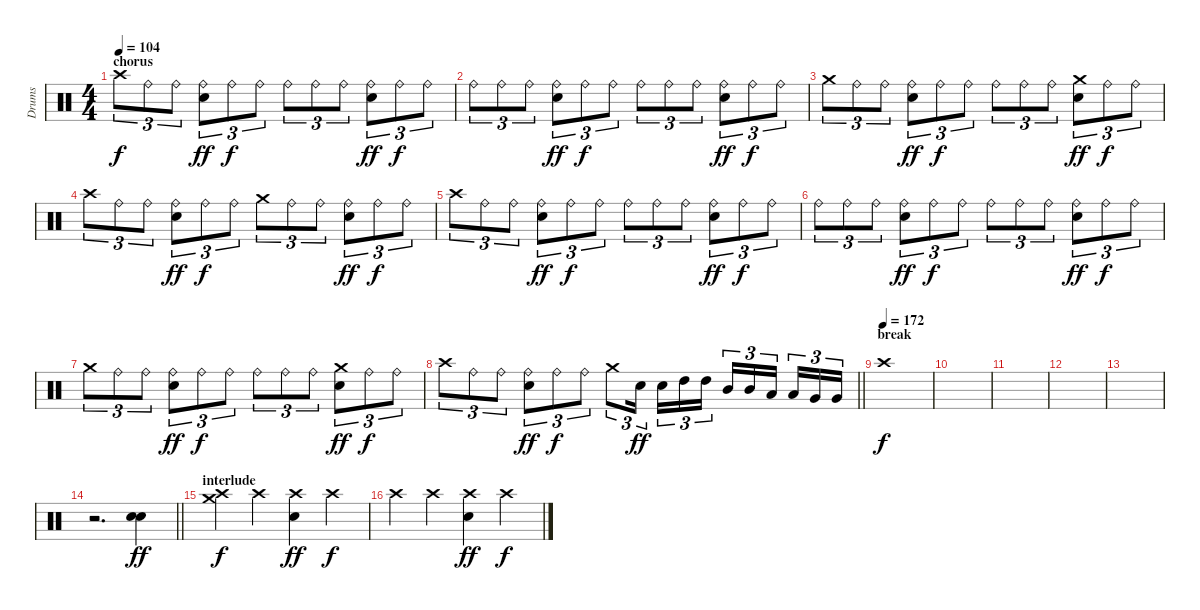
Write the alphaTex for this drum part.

\track ("Drums" "Drums") {instrument percussion}
\staff {score}
\articulation defaults
\ts (4 4)
\section ("" "chorus")
\tempo 104
\clef neutral
\ks c "Crash high (hit)".8{tu (3 2) dy f} "Ride (bell)".8{tu (3 2)} "Ride (bell)".8{tu (3 2)}
("Ride (bell)" "Snare (hit) 2").8{tu (3 2) dy ff} "Ride (bell)".8{tu (3 2) dy f} "Ride (bell)".8{tu (3 2)} "Ride (bell)".8{tu (3 2)} "Ride (bell)".8{tu (3 2)} "Ride (bell)".8{tu (3 2)} ("Ride (bell)" "Snare (hit) 2").8{tu (3 2) dy ff} "Ride (bell)".8{tu (3 2) dy f} "Ride (bell)".8{tu (3 2)} |
"Ride (bell)".8{tu (3 2)} "Ride (bell)".8{tu (3 2)} "Ride (bell)".8{tu (3 2)} ("Ride (bell)" "Snare (hit) 2").8{tu (3 2) dy ff} "Ride (bell)".8{tu (3 2) dy f} "Ride (bell)".8{tu (3 2)} "Ride (bell)".8{tu (3 2)} "Ride (bell)".8{tu (3 2)} "Ride (bell)".8{tu (3 2)} ("Ride (bell)" "Snare (hit) 2").8{tu (3 2) dy ff} "Ride (bell)".8{tu (3 2) dy f} "Ride (bell)".8{tu (3 2)} |
"Crash medium (hit)".8{tu (3 2)} "Ride (bell)".8{tu (3 2)} "Ride (bell)".8{tu (3 2)} ("Ride (bell)" "Snare (hit) 2").8{tu (3 2) dy ff} "Ride (bell)".8{tu (3 2) dy f} "Ride (bell)".8{tu (3 2)} "Ride (bell)".8{tu (3 2)} "Ride (bell)".8{tu (3 2)} "Ride (bell)".8{tu (3 2)} ("Crash medium (hit)" "Snare (hit) 2").8{tu (3 2) dy ff} "Ride (bell)".8{tu (3 2) dy f} "Ride (bell)".8{tu (3 2)} |
"Crash high (hit)".8{tu (3 2)} "Ride (bell)".8{tu (3 2)} "Ride (bell)".8{tu (3 2)} ("Ride (bell)" "Snare (hit) 2").8{tu (3 2) dy ff} "Ride (bell)".8{tu (3 2) dy f} "Ride (bell)".8{tu (3 2)} "Crash medium (hit)".8{tu (3 2)} "Ride (bell)".8{tu (3 2)} "Ride (bell)".8{tu (3 2)} ("Ride (bell)" "Snare (hit) 2").8{tu (3 2) dy ff} "Ride (bell)".8{tu (3 2) dy f} "Ride (bell)".8{tu (3 2)} |
"Crash high (hit)".8{tu (3 2)} "Ride (bell)".8{tu (3 2)} "Ride (bell)".8{tu (3 2)} ("Ride (bell)" "Snare (hit) 2").8{tu (3 2) dy ff} "Ride (bell)".8{tu (3 2) dy f} "Ride (bell)".8{tu (3 2)} "Ride (bell)".8{tu (3 2)} "Ride (bell)".8{tu (3 2)} "Ride (bell)".8{tu (3 2)} ("Ride (bell)" "Snare (hit) 2").8{tu (3 2) dy ff} "Ride (bell)".8{tu (3 2) dy f} "Ride (bell)".8{tu (3 2)} |
"Ride (bell)".8{tu (3 2)} "Ride (bell)".8{tu (3 2)} "Ride (bell)".8{tu (3 2)} ("Ride (bell)" "Snare (hit) 2").8{tu (3 2) dy ff} "Ride (bell)".8{tu (3 2) dy f} "Ride (bell)".8{tu (3 2)} "Ride (bell)".8{tu (3 2)} "Ride (bell)".8{tu (3 2)} "Ride (bell)".8{tu (3 2)} ("Ride (bell)" "Snare (hit) 2").8{tu (3 2) dy ff} "Ride (bell)".8{tu (3 2) dy f} "Ride (bell)".8{tu (3 2)} |
"Crash medium (hit)".8{tu (3 2)} "Ride (bell)".8{tu (3 2)} "Ride (bell)".8{tu (3 2)} ("Ride (bell)" "Snare (hit) 2").8{tu (3 2) dy ff} "Ride (bell)".8{tu (3 2) dy f} "Ride (bell)".8{tu (3 2)} "Ride (bell)".8{tu (3 2)} "Ride (bell)".8{tu (3 2)} "Ride (bell)".8{tu (3 2)} ("Crash medium (hit)" "Snare (hit) 2").8{tu (3 2) dy ff} "Ride (bell)".8{tu (3 2) dy f} "Ride (bell)".8{tu (3 2)} |
\barLineRight lightlight "Crash high (hit)".8{tu (3 2)} "Ride (bell)".8{tu (3 2)} "Ride (bell)".8{tu (3 2)}
("Ride (bell)" "Snare (hit) 2").8{tu (3 2) dy ff} "Ride (bell)".8{tu (3 2) dy f} "Ride (bell)".8{tu (3 2)} "Crash medium (hit)".8{tu (3 2)} "Snare (hit) 2".16{tu (3 2) dy ff beam splitsecondary} "Snare (hit) 2".16{tu (3 2)} "High Tom (hit)".16{tu (3 2)} "High Tom (hit)".16{tu (3 2)} "Mid Tom (hit)".16{tu (3 2)} "Mid Tom (hit)".16{tu (3 2)} "Low Tom (hit)".16{tu (3 2) beam splitsecondary} "Low Tom (hit)".16{tu (3 2)} "Very Low Tom (hit)".16{tu (3 2)} "Very Low Tom (hit)".16{tu (3 2)} |
\section ("" "break")
\tempo (172)
"Crash high (hit)".1{dy f} |
|
|
|
|
\barLineRight lightlight
r.2{d} ("Snare (hit) 2" "Snare (hit) 2").4{dy ff} |
\section ("" "interlude")
("Crash high (hit)" "Crash medium (hit)").4{dy f} "Crash high (hit)".4 ("Crash high (hit)" "Snare (hit) 2").4{dy ff} "Crash high (hit)".4{dy f} |
"Crash high (hit)".4 "Crash high (hit)".4 ("Crash high (hit)" "Snare (hit) 2").4{dy ff} "Crash high (hit)".4{dy f}
